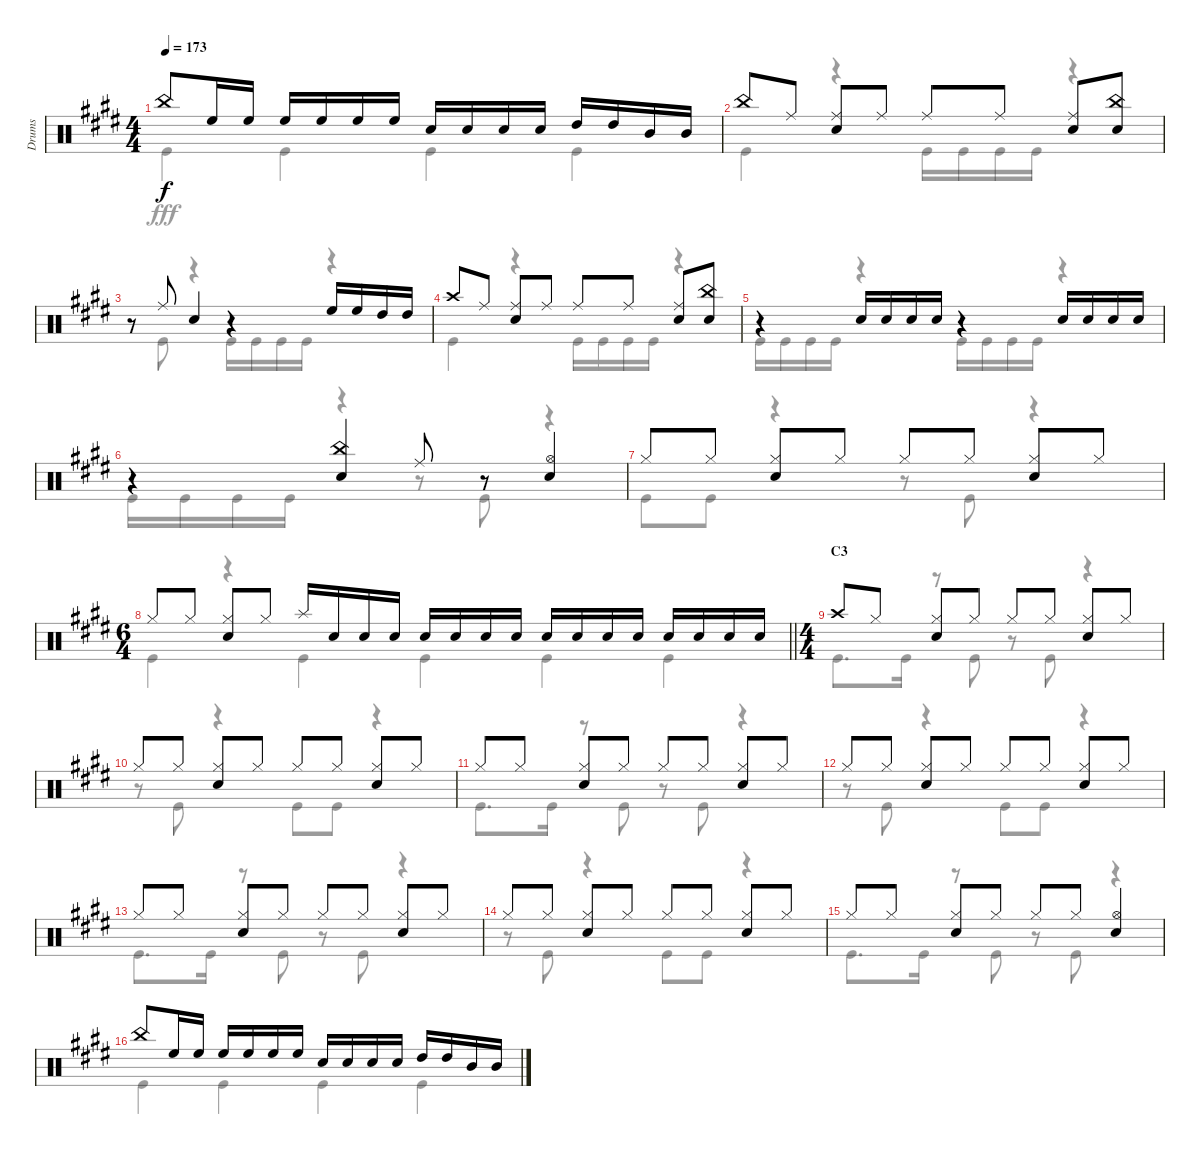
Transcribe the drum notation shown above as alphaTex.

\track ("Drums" "Drums") {instrument percussion}
\staff {score}
\articulation defaults
\voice
\ts (4 4)
\tempo 173
\clef neutral
\ks e "China (hit)".8{dy f} "High Floor Tom (hit)".16 "High Floor Tom (hit)".16 "High Floor Tom (hit)".16 "High Floor Tom (hit)".16 "High Floor Tom (hit)".16 "High Floor Tom (hit)".16 "Snare (hit) 2".16 "Snare (hit) 2".16 "Snare (hit) 2".16 "Snare (hit) 2".16 "High Tom (hit)".16 "High Tom (hit)".16 "Mid Tom (hit)".16 "Mid Tom (hit)".16
|
"China (hit)".8 "Ride (middle)".8 ("Ride (middle)" "Snare (hit) 2").8 "Ride (middle)".8 "Ride (middle)".8 "Ride (middle)".8 ("Ride (middle)" "Snare (hit) 2").8 ("China (hit)" "Snare (hit) 2").8 |
r.8 "Ride (middle)".8 "Snare (hit) 2".4 r.4 "High Floor Tom (hit)".16 "High Floor Tom (hit)".16 "High Tom (hit)".16 "High Tom (hit)".16 |
"Crash high (hit)".8 "Ride (middle)".8 ("Ride (middle)" "Snare (hit) 2").8 "Ride (middle)".8 "Ride (middle)".8 "Ride (middle)".8 ("Ride (middle)" "Snare (hit) 2").8 ("China (hit)" "Snare (hit) 2").8 |
r.4 "Snare (hit) 2".16 "Snare (hit) 2".16 "Snare (hit) 2".16 "Snare (hit) 2".16 r.4 "Snare (hit) 2".16 "Snare (hit) 2".16 "Snare (hit) 2".16 "Snare (hit) 2".16 |
r.4 ("China (hit)" "Snare (hit) 2").4 "Ride (middle)".8 r.8 ("Hi-Hat (open)" "Snare (hit) 2").4 |
"Hi-Hat (closed)".8 "Hi-Hat (closed)".8 ("Hi-Hat (closed)" "Snare (hit) 2").8 "Hi-Hat (closed)".8 "Hi-Hat (closed)".8 "Hi-Hat (closed)".8 ("Hi-Hat (closed)" "Snare (hit) 2").8 "Hi-Hat (closed)".8 |
\ts (6 4)
\barLineRight lightlight "Hi-Hat (closed)".8 "Hi-Hat (closed)".8
("Hi-Hat (closed)" "Snare (hit) 2").8 "Hi-Hat (closed)".8 "Splash (hit)".16 "Snare (hit) 2".16 "Snare (hit) 2".16 "Snare (hit) 2".16 "Snare (hit) 2".16 "Snare (hit) 2".16 "Snare (hit) 2".16 "Snare (hit) 2".16 "Snare (hit) 2".16 "Snare (hit) 2".16 "Snare (hit) 2".16 "Snare (hit) 2".16 "Snare (hit) 2".16 "Snare (hit) 2".16 "Snare (hit) 2".16 "Snare (hit) 2".16 |
\ts (4 4)
\section ("" "C3")
"Crash high (hit)".8 "Hi-Hat (closed)".8 ("Hi-Hat (closed)" "Snare (hit) 2").8 "Hi-Hat (closed)".8 "Hi-Hat (closed)".8 "Hi-Hat (closed)".8 ("Hi-Hat (closed)" "Snare (hit) 2").8 "Hi-Hat (closed)".8 |
"Hi-Hat (closed)".8 "Hi-Hat (closed)".8 ("Hi-Hat (closed)" "Snare (hit) 2").8 "Hi-Hat (closed)".8 "Hi-Hat (closed)".8 "Hi-Hat (closed)".8 ("Hi-Hat (closed)" "Snare (hit) 2").8 "Hi-Hat (closed)".8 |
"Hi-Hat (closed)".8 "Hi-Hat (closed)".8 ("Hi-Hat (closed)" "Snare (hit) 2").8 "Hi-Hat (closed)".8 "Hi-Hat (closed)".8 "Hi-Hat (closed)".8 ("Hi-Hat (closed)" "Snare (hit) 2").8 "Hi-Hat (closed)".8 |
"Hi-Hat (closed)".8 "Hi-Hat (closed)".8 ("Hi-Hat (closed)" "Snare (hit) 2").8 "Hi-Hat (closed)".8 "Hi-Hat (closed)".8 "Hi-Hat (closed)".8 ("Hi-Hat (closed)" "Snare (hit) 2").8 "Hi-Hat (closed)".8 |
"Hi-Hat (closed)".8 "Hi-Hat (closed)".8 ("Hi-Hat (closed)" "Snare (hit) 2").8 "Hi-Hat (closed)".8 "Hi-Hat (closed)".8 "Hi-Hat (closed)".8 ("Hi-Hat (closed)" "Snare (hit) 2").8 "Hi-Hat (closed)".8 |
"Hi-Hat (closed)".8 "Hi-Hat (closed)".8 ("Hi-Hat (closed)" "Snare (hit) 2").8 "Hi-Hat (closed)".8 "Hi-Hat (closed)".8 "Hi-Hat (closed)".8 ("Hi-Hat (closed)" "Snare (hit) 2").8 "Hi-Hat (closed)".8 |
"Hi-Hat (closed)".8 "Hi-Hat (closed)".8 ("Hi-Hat (closed)" "Snare (hit) 2").8 "Hi-Hat (closed)".8 "Hi-Hat (closed)".8 "Hi-Hat (closed)".8 ("Hi-Hat (open)" "Snare (hit) 2").4 |
"China (hit)".8 "High Floor Tom (hit)".16 "High Floor Tom (hit)".16 "High Floor Tom (hit)".16 "High Floor Tom (hit)".16 "High Floor Tom (hit)".16 "High Floor Tom (hit)".16 "Snare (hit) 2".16 "Snare (hit) 2".16 "Snare (hit) 2".16 "Snare (hit) 2".16 "High Tom (hit)".16 "High Tom (hit)".16 "Mid Tom (hit)".16 "Mid Tom (hit)".16
\voice
\clef neutral
\ottava regular
\simile none
\ks e "Kick (hit)".4{dy fff} "Kick (hit)".4 "Kick (hit)".4 "Kick (hit)".4
|
"Kick (hit)".4 r.4 "Kick (hit)".16 "Kick (hit)".16 "Kick (hit)".16 "Kick (hit)".16 r.4 |
r.8 "Kick (hit)".8 r.4 "Kick (hit)".16 "Kick (hit)".16 "Kick (hit)".16 "Kick (hit)".16 r.4 |
"Kick (hit)".4 r.4 "Kick (hit)".16 "Kick (hit)".16 "Kick (hit)".16 "Kick (hit)".16 r.4 |
"Kick (hit)".16 "Kick (hit)".16 "Kick (hit)".16 "Kick (hit)".16 r.4 "Kick (hit)".16 "Kick (hit)".16 "Kick (hit)".16 "Kick (hit)".16 r.4 |
"Kick (hit)".16 "Kick (hit)".16 "Kick (hit)".16 "Kick (hit)".16 r.4 r.8 "Kick (hit)".8 r.4 |
"Kick (hit)".8 "Kick (hit)".8 r.4 r.8 "Kick (hit)".8 r.4 |
\barLineRight lightlight "Kick (hit)".4
r.4 "Kick (hit)".4 "Kick (hit)".4 "Kick (hit)".4 "Kick (hit)".4 |
"Kick (hit)".8{d} "Kick (hit)".16 r.8 "Kick (hit)".8 r.8 "Kick (hit)".8 r.4 |
r.8 "Kick (hit)".8 r.4 "Kick (hit)".8 "Kick (hit)".8 r.4 |
"Kick (hit)".8{d} "Kick (hit)".16 r.8 "Kick (hit)".8 r.8 "Kick (hit)".8 r.4 |
r.8 "Kick (hit)".8 r.4 "Kick (hit)".8 "Kick (hit)".8 r.4 |
"Kick (hit)".8{d} "Kick (hit)".16 r.8 "Kick (hit)".8 r.8 "Kick (hit)".8 r.4 |
r.8 "Kick (hit)".8 r.4 "Kick (hit)".8 "Kick (hit)".8 r.4 |
"Kick (hit)".8{d} "Kick (hit)".16 r.8 "Kick (hit)".8 r.8 "Kick (hit)".8 r.4 |
"Kick (hit)".4 "Kick (hit)".4 "Kick (hit)".4 "Kick (hit)".4
